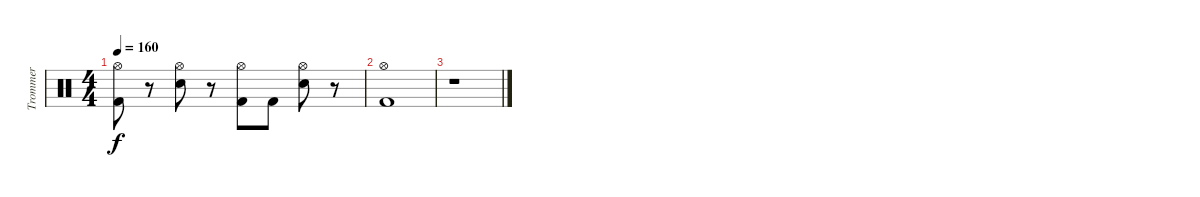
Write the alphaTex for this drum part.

\track ("Trommer" "Trommer") {instrument percussion}
\staff {score}
\articulation defaults
\ts (4 4)
\tempo 160
\clef neutral
\ks c
("Hi-Hat (open)" "Kick (hit) 2").8{dy f} r.8 ("Hi-Hat (open)" "Electric Snare (hit)").8 r.8 ("Hi-Hat (open)" "Kick (hit) 2").8 "Kick (hit) 2".8 ("Hi-Hat (open)" "Electric Snare (hit)").8 r.8 |
("Hi-Hat (open)" "Kick (hit) 2").1 |
r.1
